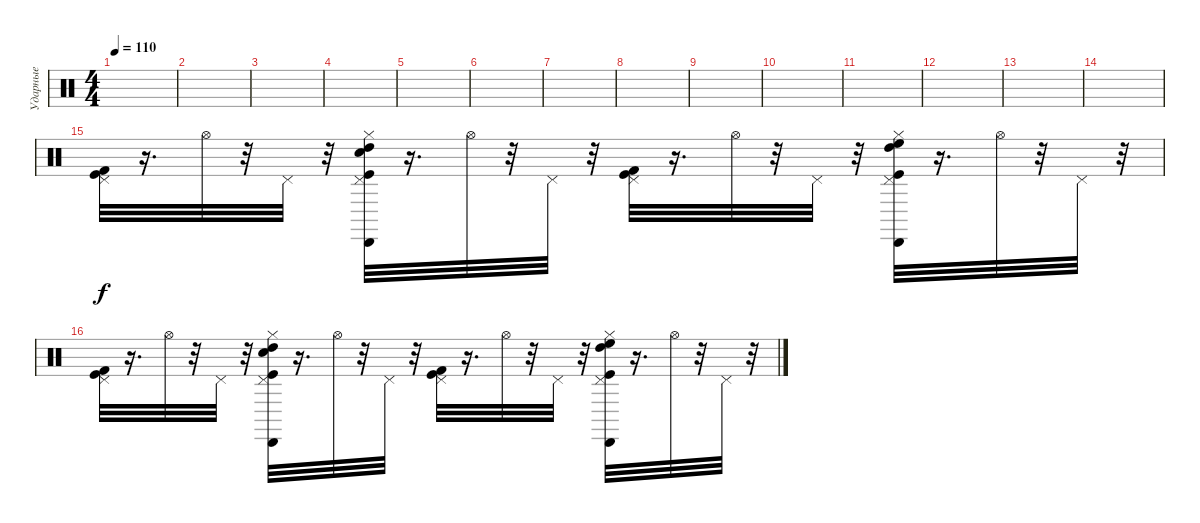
\track ("Ударные" "Ударные") {instrument percussion}
\staff
\articulation defaults
\ts (4 4)
\tempo 110
\clef neutral
\ks c
|
|
|
|
|
|
|
|
|
|
|
|
|
|
("Pedal Hi-Hat (hit)" "Kick (hit) 2" "Kick (hit)").32 r.16{d} "Hi-Hat (open)".32 r.32 "Pedal Hi-Hat (hit)".32 r.32 ("Kick (hit)" "High Tom (hit)" "Cabasa (hit)" "Hi-Hat (closed)" "Pedal Hi-Hat (hit)" "Electric Snare (hit)").32 r.16{d} "Hi-Hat (open)".32 r.32 "Pedal Hi-Hat (hit)".32 r.32 ("Pedal Hi-Hat (hit)" "Kick (hit) 2" "Kick (hit)").32 r.16{d} "Hi-Hat (open)".32 r.32 "Pedal Hi-Hat (hit)".32 r.32 ("Kick (hit)" "High Floor Tom (hit)" "High Tom (hit)" "Cabasa (hit)" "Hi-Hat (closed)" "Pedal Hi-Hat (hit)").32 r.16{d} "Hi-Hat (open)".32 r.32 "Pedal Hi-Hat (hit)".32 r.32 |
("Pedal Hi-Hat (hit)" "Kick (hit) 2" "Kick (hit)").32 r.16{d} "Hi-Hat (open)".32 r.32 "Pedal Hi-Hat (hit)".32 r.32 ("Kick (hit)" "High Tom (hit)" "Cabasa (hit)" "Hi-Hat (closed)" "Pedal Hi-Hat (hit)" "Electric Snare (hit)").32 r.16{d} "Hi-Hat (open)".32 r.32 "Pedal Hi-Hat (hit)".32 r.32 ("Pedal Hi-Hat (hit)" "Kick (hit) 2" "Kick (hit)").32 r.16{d} "Hi-Hat (open)".32 r.32 "Pedal Hi-Hat (hit)".32 r.32 ("Kick (hit)" "High Floor Tom (hit)" "High Tom (hit)" "Cabasa (hit)" "Hi-Hat (closed)" "Pedal Hi-Hat (hit)").32 r.16{d} "Hi-Hat (open)".32 r.32 "Pedal Hi-Hat (hit)".32 r.32
